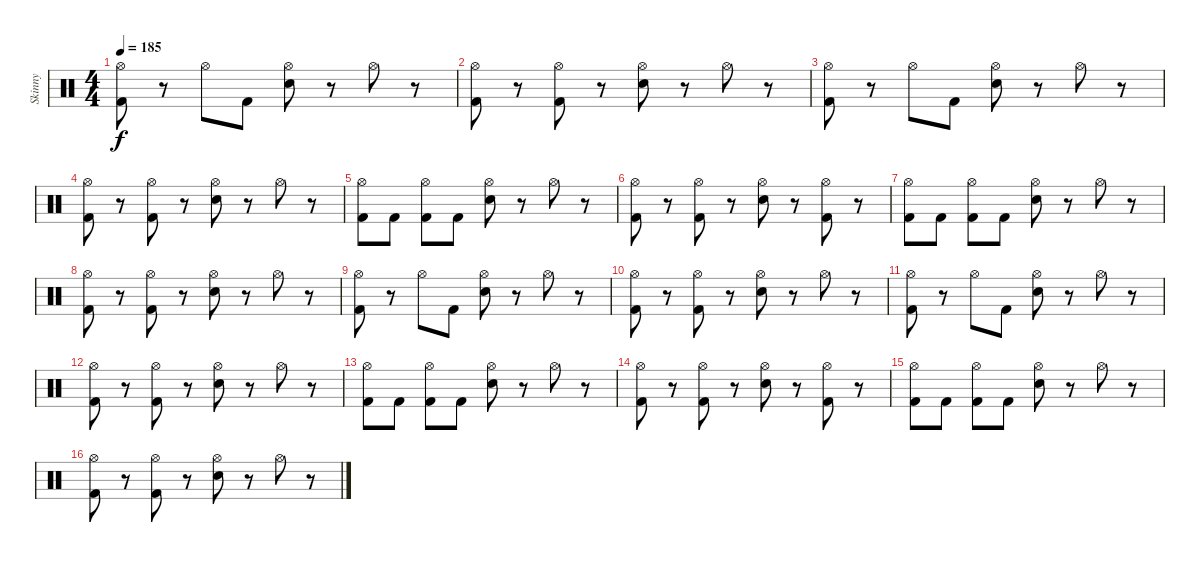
\track ("Skinny" "Skinny") {instrument percussion}
\staff {score}
\articulation defaults
\ts (4 4)
\tempo 185
\clef neutral
\ks c
("Hi-Hat (open)" "Kick (hit) 2").8{dy f} r.8 "Hi-Hat (open)".8 "Kick (hit) 2".8 ("Hi-Hat (open)" "Snare (hit) 2").8 r.8 "Hi-Hat (open)".8 r.8 |
("Hi-Hat (open)" "Kick (hit) 2").8 r.8 ("Hi-Hat (open)" "Kick (hit) 2").8 r.8 ("Hi-Hat (open)" "Snare (hit) 2").8 r.8 "Hi-Hat (open)".8 r.8 |
("Hi-Hat (open)" "Kick (hit) 2").8 r.8 "Hi-Hat (open)".8 "Kick (hit) 2".8 ("Hi-Hat (open)" "Snare (hit) 2").8 r.8 "Hi-Hat (open)".8 r.8 |
("Hi-Hat (open)" "Kick (hit) 2").8 r.8 ("Hi-Hat (open)" "Kick (hit) 2").8 r.8 ("Hi-Hat (open)" "Snare (hit) 2").8 r.8 "Hi-Hat (open)".8 r.8 |
("Hi-Hat (open)" "Kick (hit) 2").8 "Kick (hit) 2".8 ("Hi-Hat (open)" "Kick (hit) 2").8 "Kick (hit) 2".8 ("Hi-Hat (open)" "Snare (hit) 2").8 r.8 "Hi-Hat (open)".8 r.8 |
("Hi-Hat (open)" "Kick (hit) 2").8 r.8 ("Hi-Hat (open)" "Kick (hit) 2").8 r.8 ("Hi-Hat (open)" "Snare (hit) 2").8 r.8 ("Hi-Hat (open)" "Kick (hit) 2").8 r.8 |
("Hi-Hat (open)" "Kick (hit) 2").8 "Kick (hit) 2".8 ("Hi-Hat (open)" "Kick (hit) 2").8 "Kick (hit) 2".8 ("Hi-Hat (open)" "Snare (hit) 2").8 r.8 "Hi-Hat (open)".8 r.8 |
("Hi-Hat (open)" "Kick (hit) 2").8 r.8 ("Hi-Hat (open)" "Kick (hit) 2").8 r.8 ("Hi-Hat (open)" "Snare (hit) 2").8 r.8 "Hi-Hat (open)".8 r.8 |
("Hi-Hat (open)" "Kick (hit) 2").8 r.8 "Hi-Hat (open)".8 "Kick (hit) 2".8 ("Hi-Hat (open)" "Snare (hit) 2").8 r.8 "Hi-Hat (open)".8 r.8 |
("Hi-Hat (open)" "Kick (hit) 2").8 r.8 ("Hi-Hat (open)" "Kick (hit) 2").8 r.8 ("Hi-Hat (open)" "Snare (hit) 2").8 r.8 "Hi-Hat (open)".8 r.8 |
("Hi-Hat (open)" "Kick (hit) 2").8 r.8 "Hi-Hat (open)".8 "Kick (hit) 2".8 ("Hi-Hat (open)" "Snare (hit) 2").8 r.8 "Hi-Hat (open)".8 r.8 |
("Hi-Hat (open)" "Kick (hit) 2").8 r.8 ("Hi-Hat (open)" "Kick (hit) 2").8 r.8 ("Hi-Hat (open)" "Snare (hit) 2").8 r.8 "Hi-Hat (open)".8 r.8 |
("Hi-Hat (open)" "Kick (hit) 2").8 "Kick (hit) 2".8 ("Hi-Hat (open)" "Kick (hit) 2").8 "Kick (hit) 2".8 ("Hi-Hat (open)" "Snare (hit) 2").8 r.8 "Hi-Hat (open)".8 r.8 |
("Hi-Hat (open)" "Kick (hit) 2").8 r.8 ("Hi-Hat (open)" "Kick (hit) 2").8 r.8 ("Hi-Hat (open)" "Snare (hit) 2").8 r.8 ("Hi-Hat (open)" "Kick (hit) 2").8 r.8 |
("Hi-Hat (open)" "Kick (hit) 2").8 "Kick (hit) 2".8 ("Hi-Hat (open)" "Kick (hit) 2").8 "Kick (hit) 2".8 ("Hi-Hat (open)" "Snare (hit) 2").8 r.8 "Hi-Hat (open)".8 r.8 |
("Hi-Hat (open)" "Kick (hit) 2").8 r.8 ("Hi-Hat (open)" "Kick (hit) 2").8 r.8 ("Hi-Hat (open)" "Snare (hit) 2").8 r.8 "Hi-Hat (open)".8 r.8
